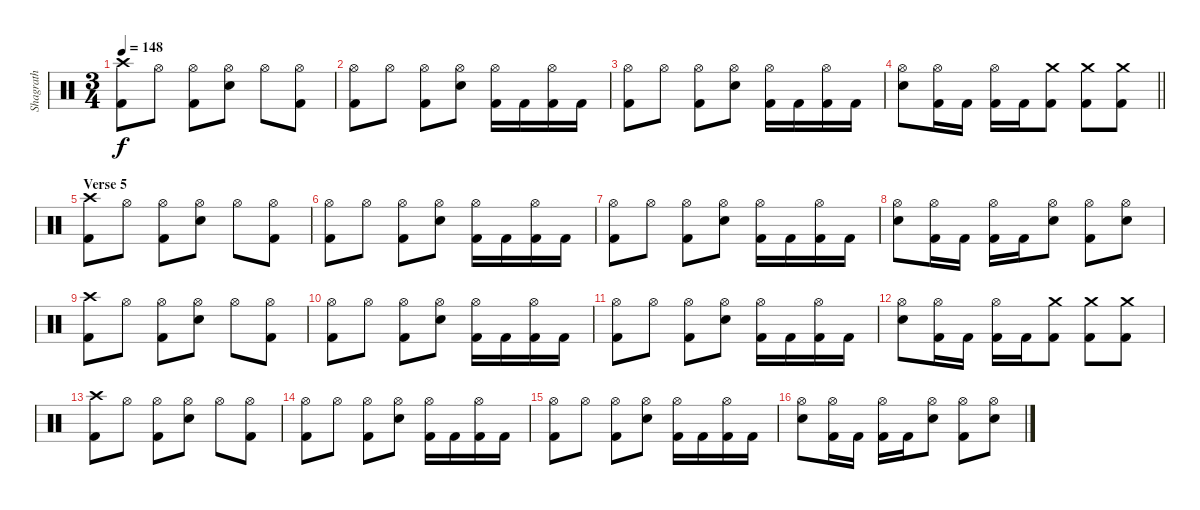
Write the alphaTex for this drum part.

\track ("Shagrath" "Shagrath") {instrument percussion}
\staff {score}
\articulation defaults
\ts (3 4)
\tempo 148
\clef neutral
\ks c
("Crash high (hit)" "Kick (hit) 2").8{dy f} "Hi-Hat (open)".8 ("Hi-Hat (open)" "Kick (hit) 2").8 ("Hi-Hat (open)" "Electric Snare (hit)").8 "Hi-Hat (open)".8 ("Hi-Hat (open)" "Kick (hit) 2").8 |
("Hi-Hat (open)" "Kick (hit) 2").8 "Hi-Hat (open)".8 ("Hi-Hat (open)" "Kick (hit) 2").8 ("Hi-Hat (open)" "Electric Snare (hit)").8 ("Hi-Hat (open)" "Kick (hit) 2").16 "Kick (hit) 2".16 ("Hi-Hat (open)" "Kick (hit) 2").16 "Kick (hit) 2".16 |
("Hi-Hat (open)" "Kick (hit) 2").8 "Hi-Hat (open)".8 ("Hi-Hat (open)" "Kick (hit) 2").8 ("Hi-Hat (open)" "Electric Snare (hit)").8 ("Hi-Hat (open)" "Kick (hit) 2").16 "Kick (hit) 2".16 ("Hi-Hat (open)" "Kick (hit) 2").16 "Kick (hit) 2".16 |
\barLineRight lightlight
("Hi-Hat (open)" "Electric Snare (hit)").8 ("Hi-Hat (open)" "Kick (hit) 2").16 "Kick (hit) 2".16 ("Hi-Hat (open)" "Kick (hit) 2").16 "Kick (hit) 2".16 ("Crash medium (hit)" "Kick (hit) 2").8 ("Crash medium (hit)" "Kick (hit) 2").8 ("Crash medium (hit)" "Kick (hit) 2").8 |
\section ("" "Verse 5")
("Crash high (hit)" "Kick (hit) 2").8 "Hi-Hat (open)".8 ("Hi-Hat (open)" "Kick (hit) 2").8 ("Hi-Hat (open)" "Electric Snare (hit)").8 "Hi-Hat (open)".8 ("Hi-Hat (open)" "Kick (hit) 2").8 |
("Hi-Hat (open)" "Kick (hit) 2").8 "Hi-Hat (open)".8 ("Hi-Hat (open)" "Kick (hit) 2").8 ("Hi-Hat (open)" "Electric Snare (hit)").8 ("Hi-Hat (open)" "Kick (hit) 2").16 "Kick (hit) 2".16 ("Hi-Hat (open)" "Kick (hit) 2").16 "Kick (hit) 2".16 |
("Hi-Hat (open)" "Kick (hit) 2").8 "Hi-Hat (open)".8 ("Hi-Hat (open)" "Kick (hit) 2").8 ("Hi-Hat (open)" "Electric Snare (hit)").8 ("Hi-Hat (open)" "Kick (hit) 2").16 "Kick (hit) 2".16 ("Hi-Hat (open)" "Kick (hit) 2").16 "Kick (hit) 2".16 |
("Hi-Hat (open)" "Electric Snare (hit)").8 ("Hi-Hat (open)" "Kick (hit) 2").16 "Kick (hit) 2".16 ("Hi-Hat (open)" "Kick (hit) 2").16 "Kick (hit) 2".16 ("Hi-Hat (open)" "Electric Snare (hit)").8 ("Hi-Hat (open)" "Kick (hit) 2").8 ("Hi-Hat (open)" "Electric Snare (hit)").8 |
("Crash high (hit)" "Kick (hit) 2").8 "Hi-Hat (open)".8 ("Hi-Hat (open)" "Kick (hit) 2").8 ("Hi-Hat (open)" "Electric Snare (hit)").8 "Hi-Hat (open)".8 ("Hi-Hat (open)" "Kick (hit) 2").8 |
("Hi-Hat (open)" "Kick (hit) 2").8 "Hi-Hat (open)".8 ("Hi-Hat (open)" "Kick (hit) 2").8 ("Hi-Hat (open)" "Electric Snare (hit)").8 ("Hi-Hat (open)" "Kick (hit) 2").16 "Kick (hit) 2".16 ("Hi-Hat (open)" "Kick (hit) 2").16 "Kick (hit) 2".16 |
("Hi-Hat (open)" "Kick (hit) 2").8 "Hi-Hat (open)".8 ("Hi-Hat (open)" "Kick (hit) 2").8 ("Hi-Hat (open)" "Electric Snare (hit)").8 ("Hi-Hat (open)" "Kick (hit) 2").16 "Kick (hit) 2".16 ("Hi-Hat (open)" "Kick (hit) 2").16 "Kick (hit) 2".16 |
("Hi-Hat (open)" "Electric Snare (hit)").8 ("Hi-Hat (open)" "Kick (hit) 2").16 "Kick (hit) 2".16 ("Hi-Hat (open)" "Kick (hit) 2").16 "Kick (hit) 2".16 ("Crash medium (hit)" "Kick (hit) 2").8 ("Crash medium (hit)" "Kick (hit) 2").8 ("Crash medium (hit)" "Kick (hit) 2").8 |
("Crash high (hit)" "Kick (hit) 2").8 "Hi-Hat (open)".8 ("Hi-Hat (open)" "Kick (hit) 2").8 ("Hi-Hat (open)" "Electric Snare (hit)").8 "Hi-Hat (open)".8 ("Hi-Hat (open)" "Kick (hit) 2").8 |
("Hi-Hat (open)" "Kick (hit) 2").8 "Hi-Hat (open)".8 ("Hi-Hat (open)" "Kick (hit) 2").8 ("Hi-Hat (open)" "Electric Snare (hit)").8 ("Hi-Hat (open)" "Kick (hit) 2").16 "Kick (hit) 2".16 ("Hi-Hat (open)" "Kick (hit) 2").16 "Kick (hit) 2".16 |
("Hi-Hat (open)" "Kick (hit) 2").8 "Hi-Hat (open)".8 ("Hi-Hat (open)" "Kick (hit) 2").8 ("Hi-Hat (open)" "Electric Snare (hit)").8 ("Hi-Hat (open)" "Kick (hit) 2").16 "Kick (hit) 2".16 ("Hi-Hat (open)" "Kick (hit) 2").16 "Kick (hit) 2".16 |
("Hi-Hat (open)" "Electric Snare (hit)").8 ("Hi-Hat (open)" "Kick (hit) 2").16 "Kick (hit) 2".16 ("Hi-Hat (open)" "Kick (hit) 2").16 "Kick (hit) 2".16 ("Hi-Hat (open)" "Electric Snare (hit)").8 ("Hi-Hat (open)" "Kick (hit) 2").8 ("Hi-Hat (open)" "Electric Snare (hit)").8
